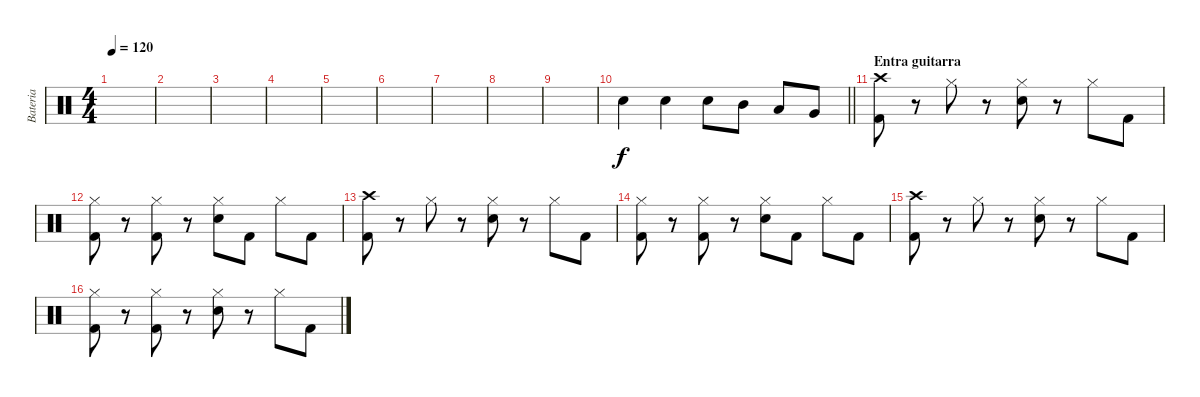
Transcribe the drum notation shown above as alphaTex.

\track ("Bateria" "Bateria") {instrument percussion}
\staff {score}
\articulation defaults
\ts (4 4)
\tempo 120
\clef neutral
\ks c
|
|
|
|
|
|
|
|
|
\barLineRight lightlight "Electric Snare (hit)".4 "Electric Snare (hit)".4 "Electric Snare (hit)".8 "Mid Tom (hit)".8 "Low Tom (hit)".8 "Very Low Tom (hit)".8
|
\section ("" "Entra guitarra")
("Crash high (hit)" "Kick (hit) 2").8 r.8 "Hi-Hat (closed)".8 r.8 ("Hi-Hat (closed)" "Electric Snare (hit)").8 r.8 "Hi-Hat (closed)".8 "Kick (hit) 2".8 |
("Hi-Hat (closed)" "Kick (hit) 2").8 r.8 ("Hi-Hat (closed)" "Kick (hit) 2").8 r.8 ("Hi-Hat (closed)" "Electric Snare (hit)").8 "Kick (hit) 2".8 "Hi-Hat (closed)".8 "Kick (hit) 2".8 |
("Crash high (hit)" "Kick (hit) 2").8 r.8 "Hi-Hat (closed)".8 r.8 ("Hi-Hat (closed)" "Electric Snare (hit)").8 r.8 "Hi-Hat (closed)".8 "Kick (hit) 2".8 |
("Hi-Hat (closed)" "Kick (hit) 2").8 r.8 ("Hi-Hat (closed)" "Kick (hit) 2").8 r.8 ("Hi-Hat (closed)" "Electric Snare (hit)").8 "Kick (hit) 2".8 "Hi-Hat (closed)".8 "Kick (hit) 2".8 |
("Crash high (hit)" "Kick (hit) 2").8 r.8 "Hi-Hat (closed)".8 r.8 ("Hi-Hat (closed)" "Electric Snare (hit)").8 r.8 "Hi-Hat (closed)".8 "Kick (hit) 2".8 |
("Hi-Hat (closed)" "Kick (hit) 2").8 r.8 ("Hi-Hat (closed)" "Kick (hit) 2").8 r.8 ("Hi-Hat (closed)" "Electric Snare (hit)").8 r.8 "Hi-Hat (closed)".8 "Kick (hit) 2".8
